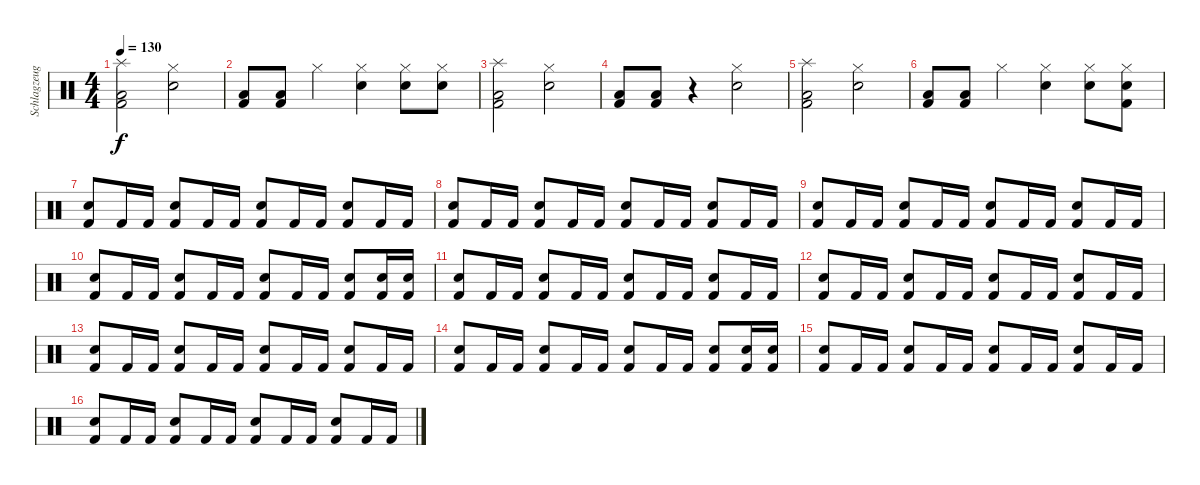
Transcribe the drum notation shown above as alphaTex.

\track ("Schlagzeug" "Schlagzeug") {instrument percussion}
\staff {score}
\articulation defaults
\ts (4 4)
\tempo 130
\clef neutral
\ks c
("Splash (hit)" "Low Floor Tom (hit)" "Kick (hit) 2").2{dy f} ("Snare (hit) 2" "Hi-Hat (closed)").2 |
("Low Floor Tom (hit)" "Kick (hit) 2").8 ("Low Floor Tom (hit)" "Kick (hit) 2").8 "Hi-Hat (closed)".4 ("Snare (hit) 2" "Hi-Hat (closed)").4 ("Snare (hit) 2" "Hi-Hat (closed)").8 ("Snare (hit) 2" "Hi-Hat (closed)").8 |
("Splash (hit)" "Low Floor Tom (hit)" "Kick (hit) 2").2 ("Snare (hit) 2" "Hi-Hat (closed)").2 |
("Low Floor Tom (hit)" "Kick (hit) 2").8 ("Low Floor Tom (hit)" "Kick (hit) 2").8 r.4 ("Snare (hit) 2" "Hi-Hat (closed)").2 |
("Splash (hit)" "Low Floor Tom (hit)" "Kick (hit) 2").2 ("Snare (hit) 2" "Hi-Hat (closed)").2 |
("Low Floor Tom (hit)" "Kick (hit) 2").8 ("Low Floor Tom (hit)" "Kick (hit) 2").8 "Hi-Hat (closed)".4 ("Snare (hit) 2" "Hi-Hat (closed)").4 ("Snare (hit) 2" "Hi-Hat (closed)").8 ("Kick (hit) 2" "Snare (hit) 2" "Hi-Hat (closed)").8 |
("Snare (hit) 2" "Kick (hit) 2").8 "Kick (hit) 2".16 "Kick (hit) 2".16 ("Snare (hit) 2" "Kick (hit) 2").8 "Kick (hit) 2".16 "Kick (hit) 2".16 ("Snare (hit) 2" "Kick (hit) 2").8 "Kick (hit) 2".16 "Kick (hit) 2".16 ("Snare (hit) 2" "Kick (hit) 2").8 "Kick (hit) 2".16 "Kick (hit) 2".16 |
("Snare (hit) 2" "Kick (hit) 2").8 "Kick (hit) 2".16 "Kick (hit) 2".16 ("Snare (hit) 2" "Kick (hit) 2").8 "Kick (hit) 2".16 "Kick (hit) 2".16 ("Snare (hit) 2" "Kick (hit) 2").8 "Kick (hit) 2".16 "Kick (hit) 2".16 ("Snare (hit) 2" "Kick (hit) 2").8 "Kick (hit) 2".16 "Kick (hit) 2".16 |
("Snare (hit) 2" "Kick (hit) 2").8 "Kick (hit) 2".16 "Kick (hit) 2".16 ("Snare (hit) 2" "Kick (hit) 2").8 "Kick (hit) 2".16 "Kick (hit) 2".16 ("Snare (hit) 2" "Kick (hit) 2").8 "Kick (hit) 2".16 "Kick (hit) 2".16 ("Snare (hit) 2" "Kick (hit) 2").8 "Kick (hit) 2".16 "Kick (hit) 2".16 |
("Snare (hit) 2" "Kick (hit) 2").8 "Kick (hit) 2".16 "Kick (hit) 2".16 ("Snare (hit) 2" "Kick (hit) 2").8 "Kick (hit) 2".16 "Kick (hit) 2".16 ("Snare (hit) 2" "Kick (hit) 2").8 "Kick (hit) 2".16 "Kick (hit) 2".16 ("Snare (hit) 2" "Kick (hit) 2").8 ("Snare (hit) 2" "Kick (hit) 2").16 ("Snare (hit) 2" "Kick (hit) 2").16 |
("Snare (hit) 2" "Kick (hit) 2").8 "Kick (hit) 2".16 "Kick (hit) 2".16 ("Snare (hit) 2" "Kick (hit) 2").8 "Kick (hit) 2".16 "Kick (hit) 2".16 ("Snare (hit) 2" "Kick (hit) 2").8 "Kick (hit) 2".16 "Kick (hit) 2".16 ("Snare (hit) 2" "Kick (hit) 2").8 "Kick (hit) 2".16 "Kick (hit) 2".16 |
("Snare (hit) 2" "Kick (hit) 2").8 "Kick (hit) 2".16 "Kick (hit) 2".16 ("Snare (hit) 2" "Kick (hit) 2").8 "Kick (hit) 2".16 "Kick (hit) 2".16 ("Snare (hit) 2" "Kick (hit) 2").8 "Kick (hit) 2".16 "Kick (hit) 2".16 ("Snare (hit) 2" "Kick (hit) 2").8 "Kick (hit) 2".16 "Kick (hit) 2".16 |
("Snare (hit) 2" "Kick (hit) 2").8 "Kick (hit) 2".16 "Kick (hit) 2".16 ("Snare (hit) 2" "Kick (hit) 2").8 "Kick (hit) 2".16 "Kick (hit) 2".16 ("Snare (hit) 2" "Kick (hit) 2").8 "Kick (hit) 2".16 "Kick (hit) 2".16 ("Snare (hit) 2" "Kick (hit) 2").8 "Kick (hit) 2".16 "Kick (hit) 2".16 |
("Snare (hit) 2" "Kick (hit) 2").8 "Kick (hit) 2".16 "Kick (hit) 2".16 ("Snare (hit) 2" "Kick (hit) 2").8 "Kick (hit) 2".16 "Kick (hit) 2".16 ("Snare (hit) 2" "Kick (hit) 2").8 "Kick (hit) 2".16 "Kick (hit) 2".16 ("Snare (hit) 2" "Kick (hit) 2").8 ("Snare (hit) 2" "Kick (hit) 2").16 ("Snare (hit) 2" "Kick (hit) 2").16 |
("Snare (hit) 2" "Kick (hit) 2").8 "Kick (hit) 2".16 "Kick (hit) 2".16 ("Snare (hit) 2" "Kick (hit) 2").8 "Kick (hit) 2".16 "Kick (hit) 2".16 ("Snare (hit) 2" "Kick (hit) 2").8 "Kick (hit) 2".16 "Kick (hit) 2".16 ("Snare (hit) 2" "Kick (hit) 2").8 "Kick (hit) 2".16 "Kick (hit) 2".16 |
("Snare (hit) 2" "Kick (hit) 2").8 "Kick (hit) 2".16 "Kick (hit) 2".16 ("Snare (hit) 2" "Kick (hit) 2").8 "Kick (hit) 2".16 "Kick (hit) 2".16 ("Snare (hit) 2" "Kick (hit) 2").8 "Kick (hit) 2".16 "Kick (hit) 2".16 ("Snare (hit) 2" "Kick (hit) 2").8 "Kick (hit) 2".16 "Kick (hit) 2".16
